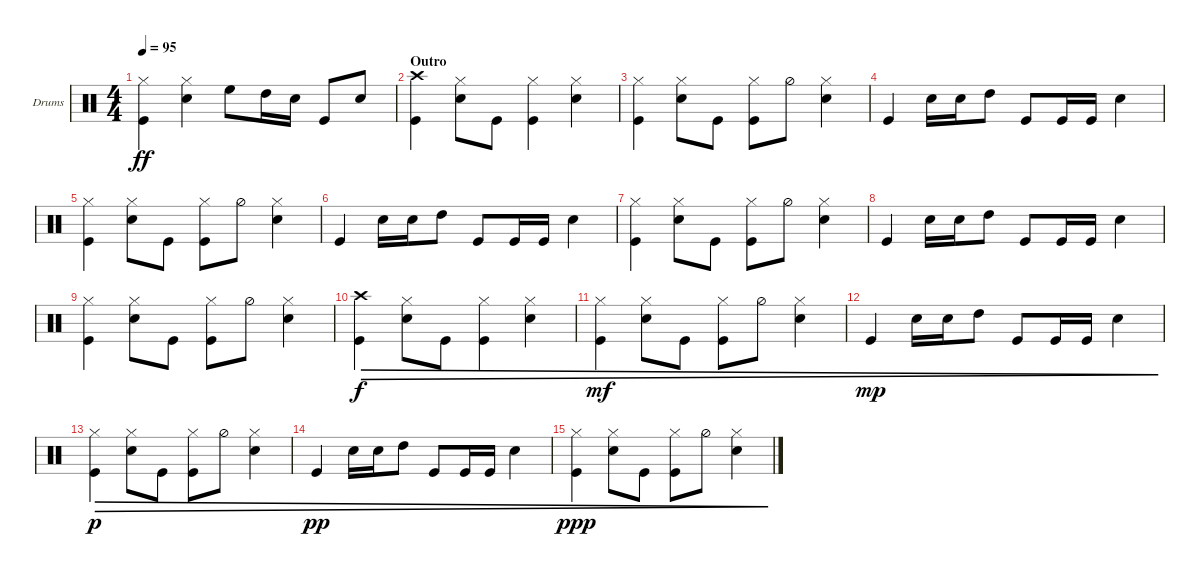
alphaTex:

\defaultSystemsLayout 4
\bracketExtendMode groupsimilarinstruments
\firstSystemTrackNameOrientation horizontal
\otherSystemsTrackNameOrientation horizontal
\track ("Drums" "Drums") {instrument percussion}
\staff {score}
\articulation defaults
\ts (4 4)
\tempo 95
\clef neutral
\ks c
("Hi-Hat (closed)" "Kick (hit)").4{dy ff} ("Hi-Hat (closed)" "Snare (hit) 2").4 "High Floor Tom (hit)".8 "High Tom (hit)".16 "Snare (hit) 2".16 "Kick (hit)".8 "Snare (hit) 2".8 |
\section ("" "Outro")
("Kick (hit)" "Crash high (hit)").4 ("Hi-Hat (closed)" "Snare (hit) 2").8 "Kick (hit)".8 ("Kick (hit)" "Hi-Hat (closed)").4 ("Hi-Hat (closed)" "Snare (hit) 2").4 |
("Hi-Hat (closed)" "Kick (hit)").4 ("Hi-Hat (closed)" "Snare (hit) 2").8 "Kick (hit)".8 ("Kick (hit)" "Hi-Hat (closed)").8 "Hi-Hat (half)".8 ("Hi-Hat (closed)" "Snare (hit) 2").4 |
"Kick (hit)".4 "Snare (hit) 2".16 "Snare (hit) 2".16 "High Tom (hit)".8 "Kick (hit)".8 "Kick (hit)".16 "Kick (hit)".16 "Snare (hit) 2".4 |
("Hi-Hat (closed)" "Kick (hit)").4 ("Hi-Hat (closed)" "Snare (hit) 2").8 "Kick (hit)".8 ("Kick (hit)" "Hi-Hat (closed)").8 "Hi-Hat (half)".8 ("Hi-Hat (closed)" "Snare (hit) 2").4 |
"Kick (hit)".4 "Snare (hit) 2".16 "Snare (hit) 2".16 "High Tom (hit)".8 "Kick (hit)".8 "Kick (hit)".16 "Kick (hit)".16 "Snare (hit) 2".4 |
("Hi-Hat (closed)" "Kick (hit)").4 ("Hi-Hat (closed)" "Snare (hit) 2").8 "Kick (hit)".8 ("Kick (hit)" "Hi-Hat (closed)").8 "Hi-Hat (half)".8 ("Hi-Hat (closed)" "Snare (hit) 2").4 |
"Kick (hit)".4 "Snare (hit) 2".16 "Snare (hit) 2".16 "High Tom (hit)".8 "Kick (hit)".8 "Kick (hit)".16 "Kick (hit)".16 "Snare (hit) 2".4 |
("Hi-Hat (closed)" "Kick (hit)").4 ("Hi-Hat (closed)" "Snare (hit) 2").8 "Kick (hit)".8 ("Kick (hit)" "Hi-Hat (closed)").8 "Hi-Hat (half)".8 ("Hi-Hat (closed)" "Snare (hit) 2").4 |
("Kick (hit)" "Crash high (hit)").4{dec dy f} ("Hi-Hat (closed)" "Snare (hit) 2").8{dec} "Kick (hit)".8{dec} ("Kick (hit)" "Hi-Hat (closed)").4{dec} ("Hi-Hat (closed)" "Snare (hit) 2").4{dec} |
("Hi-Hat (closed)" "Kick (hit)").4{dec dy mf} ("Hi-Hat (closed)" "Snare (hit) 2").8{dec} "Kick (hit)".8{dec} ("Kick (hit)" "Hi-Hat (closed)").8{dec} "Hi-Hat (half)".8{dec} ("Hi-Hat (closed)" "Snare (hit) 2").4{dec} |
"Kick (hit)".4{dec dy mp} "Snare (hit) 2".16{dec} "Snare (hit) 2".16{dec} "High Tom (hit)".8{dec} "Kick (hit)".8{dec} "Kick (hit)".16{dec} "Kick (hit)".16{dec} "Snare (hit) 2".4{dec} |
("Hi-Hat (closed)" "Kick (hit)").4{dec dy p} ("Hi-Hat (closed)" "Snare (hit) 2").8{dec} "Kick (hit)".8{dec} ("Kick (hit)" "Hi-Hat (closed)").8{dec} "Hi-Hat (half)".8{dec} ("Hi-Hat (closed)" "Snare (hit) 2").4{dec} |
"Kick (hit)".4{dec dy pp} "Snare (hit) 2".16{dec} "Snare (hit) 2".16{dec} "High Tom (hit)".8{dec} "Kick (hit)".8{dec} "Kick (hit)".16{dec} "Kick (hit)".16{dec} "Snare (hit) 2".4{dec} |
("Hi-Hat (closed)" "Kick (hit)").4{dec dy ppp} ("Hi-Hat (closed)" "Snare (hit) 2").8{dec} "Kick (hit)".8{dec} ("Kick (hit)" "Hi-Hat (closed)").8{dec} "Hi-Hat (half)".8{dec} ("Hi-Hat (closed)" "Snare (hit) 2").4{dec}
